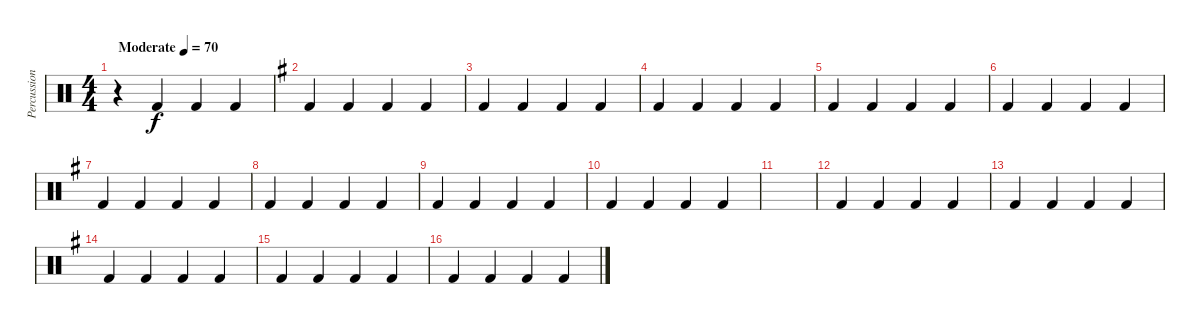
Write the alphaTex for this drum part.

\track ("Percussion" "Percussion") {instrument percussion}
\staff {score}
\articulation defaults
\ts (4 4)
\tempo (70 "Moderate")
\clef neutral
\ks c
r.4{dy f} "Kick (hit) 2".4 "Kick (hit) 2".4 "Kick (hit) 2".4 |
\ks eminor "Kick (hit) 2".4 "Kick (hit) 2".4 "Kick (hit) 2".4 "Kick (hit) 2".4
|
"Kick (hit) 2".4 "Kick (hit) 2".4 "Kick (hit) 2".4 "Kick (hit) 2".4 |
"Kick (hit) 2".4 "Kick (hit) 2".4 "Kick (hit) 2".4 "Kick (hit) 2".4 |
"Kick (hit) 2".4 "Kick (hit) 2".4 "Kick (hit) 2".4 "Kick (hit) 2".4 |
"Kick (hit) 2".4 "Kick (hit) 2".4 "Kick (hit) 2".4 "Kick (hit) 2".4 |
"Kick (hit) 2".4 "Kick (hit) 2".4 "Kick (hit) 2".4 "Kick (hit) 2".4 |
"Kick (hit) 2".4 "Kick (hit) 2".4 "Kick (hit) 2".4 "Kick (hit) 2".4 |
"Kick (hit) 2".4 "Kick (hit) 2".4 "Kick (hit) 2".4 "Kick (hit) 2".4 |
"Kick (hit) 2".4 "Kick (hit) 2".4 "Kick (hit) 2".4 "Kick (hit) 2".4 |
|
"Kick (hit) 2".4 "Kick (hit) 2".4 "Kick (hit) 2".4 "Kick (hit) 2".4 |
"Kick (hit) 2".4 "Kick (hit) 2".4 "Kick (hit) 2".4 "Kick (hit) 2".4 |
"Kick (hit) 2".4 "Kick (hit) 2".4 "Kick (hit) 2".4 "Kick (hit) 2".4 |
"Kick (hit) 2".4 "Kick (hit) 2".4 "Kick (hit) 2".4 "Kick (hit) 2".4 |
"Kick (hit) 2".4 "Kick (hit) 2".4 "Kick (hit) 2".4 "Kick (hit) 2".4
